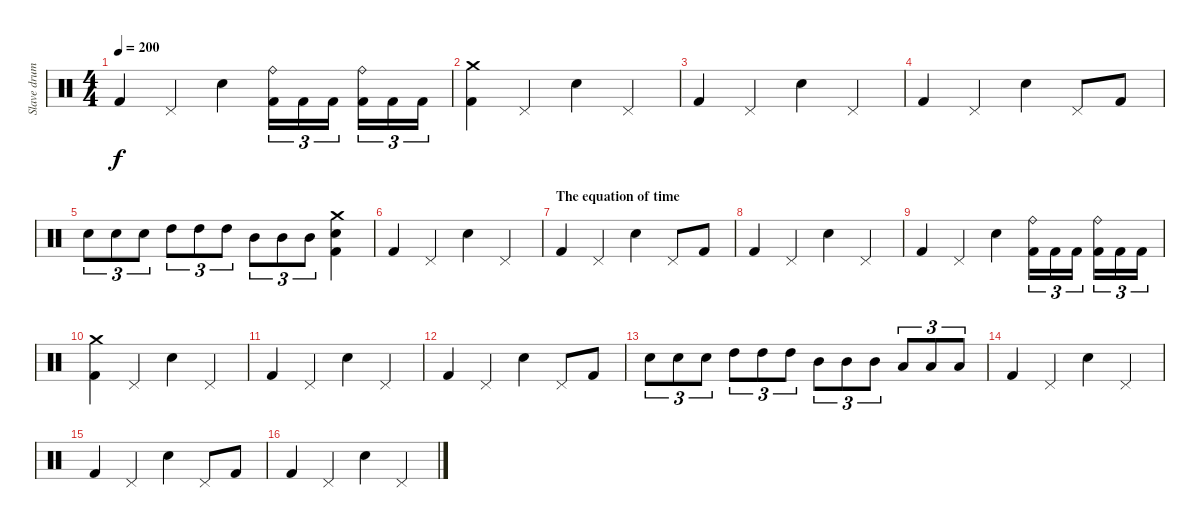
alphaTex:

\track ("Slave drum" "Slave drum") {instrument percussion}
\staff {score}
\articulation defaults
\ts (4 4)
\tempo 200
\clef neutral
\ks c "Kick (hit) 2".4{dy f} "Pedal Hi-Hat (hit)".4 "Electric Snare (hit)".4
("Ride (bell)" "Kick (hit) 2").16{tu (3 2)} "Kick (hit) 2".16{tu (3 2)} "Kick (hit) 2".16{tu (3 2)} ("Ride (bell)" "Kick (hit) 2").16{tu (3 2)} "Kick (hit) 2".16{tu (3 2)} "Kick (hit) 2".16{tu (3 2)} |
("Crash medium (hit)" "Kick (hit) 2").4 "Pedal Hi-Hat (hit)".4 "Electric Snare (hit)".4 "Pedal Hi-Hat (hit)".4 |
"Kick (hit) 2".4 "Pedal Hi-Hat (hit)".4 "Electric Snare (hit)".4 "Pedal Hi-Hat (hit)".4 |
"Kick (hit) 2".4 "Pedal Hi-Hat (hit)".4 "Electric Snare (hit)".4 "Pedal Hi-Hat (hit)".8 "Kick (hit) 2".8 |
"Electric Snare (hit)".8{tu (3 2)} "Electric Snare (hit)".8{tu (3 2)} "Electric Snare (hit)".8{tu (3 2)} "High Tom (hit)".8{tu (3 2)} "High Tom (hit)".8{tu (3 2)} "High Tom (hit)".8{tu (3 2)} "Mid Tom (hit)".8{tu (3 2)} "Mid Tom (hit)".8{tu (3 2)} "Mid Tom (hit)".8{tu (3 2)} ("Crash medium (hit)" "Electric Snare (hit)" "Kick (hit) 2").4 |
"Kick (hit) 2".4 "Pedal Hi-Hat (hit)".4 "Electric Snare (hit)".4 "Pedal Hi-Hat (hit)".4 |
\section ("" "The equation of time")
"Kick (hit) 2".4 "Pedal Hi-Hat (hit)".4 "Electric Snare (hit)".4 "Pedal Hi-Hat (hit)".8 "Kick (hit) 2".8 |
"Kick (hit) 2".4 "Pedal Hi-Hat (hit)".4 "Electric Snare (hit)".4 "Pedal Hi-Hat (hit)".4 |
"Kick (hit) 2".4 "Pedal Hi-Hat (hit)".4 "Electric Snare (hit)".4 ("Ride (bell)" "Kick (hit) 2").16{tu (3 2)} "Kick (hit) 2".16{tu (3 2)} "Kick (hit) 2".16{tu (3 2)} ("Ride (bell)" "Kick (hit) 2").16{tu (3 2)} "Kick (hit) 2".16{tu (3 2)} "Kick (hit) 2".16{tu (3 2)} |
("Crash medium (hit)" "Kick (hit) 2").4 "Pedal Hi-Hat (hit)".4 "Electric Snare (hit)".4 "Pedal Hi-Hat (hit)".4 |
"Kick (hit) 2".4 "Pedal Hi-Hat (hit)".4 "Electric Snare (hit)".4 "Pedal Hi-Hat (hit)".4 |
"Kick (hit) 2".4 "Pedal Hi-Hat (hit)".4 "Electric Snare (hit)".4 "Pedal Hi-Hat (hit)".8 "Kick (hit) 2".8 |
"Electric Snare (hit)".8{tu (3 2)} "Electric Snare (hit)".8{tu (3 2)} "Electric Snare (hit)".8{tu (3 2)} "High Tom (hit)".8{tu (3 2)} "High Tom (hit)".8{tu (3 2)} "High Tom (hit)".8{tu (3 2)} "Mid Tom (hit)".8{tu (3 2)} "Mid Tom (hit)".8{tu (3 2)} "Mid Tom (hit)".8{tu (3 2)} "Low Tom (hit)".8{tu (3 2)} "Low Tom (hit)".8{tu (3 2)} "Low Tom (hit)".8{tu (3 2)} |
"Kick (hit) 2".4 "Pedal Hi-Hat (hit)".4 "Electric Snare (hit)".4 "Pedal Hi-Hat (hit)".4 |
"Kick (hit) 2".4 "Pedal Hi-Hat (hit)".4 "Electric Snare (hit)".4 "Pedal Hi-Hat (hit)".8 "Kick (hit) 2".8 |
"Kick (hit) 2".4 "Pedal Hi-Hat (hit)".4 "Electric Snare (hit)".4 "Pedal Hi-Hat (hit)".4
